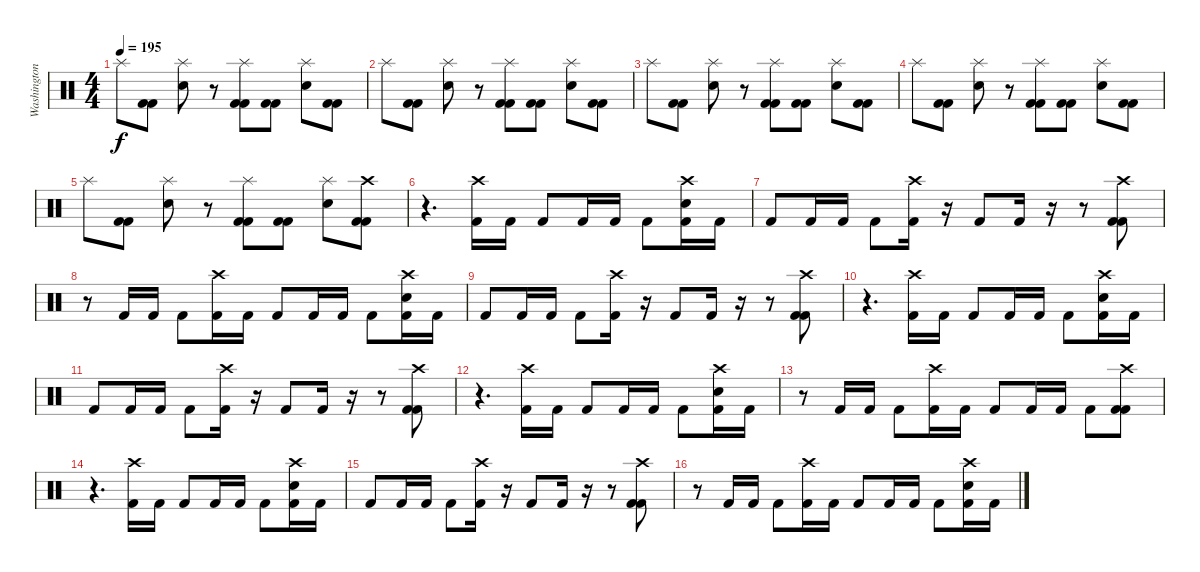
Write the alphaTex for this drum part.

\track ("Washington" "Washington") {solo instrument percussion}
\staff {score}
\articulation defaults
\ts (4 4)
\tempo 195
\clef neutral
\ks c "Splash (hit)".8{dy f}
("Kick (hit) 2" "Kick (hit) 2").8 ("Splash (hit)" "Electric Snare (hit)").8 r.8 ("Splash (hit)" "Kick (hit) 2" "Kick (hit) 2").8 ("Kick (hit) 2" "Kick (hit) 2").8 ("Splash (hit)" "Electric Snare (hit)").8 ("Kick (hit) 2" "Kick (hit) 2").8 |
"Splash (hit)".8 ("Kick (hit) 2" "Kick (hit) 2").8 ("Splash (hit)" "Electric Snare (hit)").8 r.8 ("Splash (hit)" "Kick (hit) 2" "Kick (hit) 2").8 ("Kick (hit) 2" "Kick (hit) 2").8 ("Splash (hit)" "Electric Snare (hit)").8 ("Kick (hit) 2" "Kick (hit) 2").8 |
"Splash (hit)".8 ("Kick (hit) 2" "Kick (hit) 2").8 ("Splash (hit)" "Electric Snare (hit)").8 r.8 ("Splash (hit)" "Kick (hit) 2" "Kick (hit) 2").8 ("Kick (hit) 2" "Kick (hit) 2").8 ("Splash (hit)" "Electric Snare (hit)").8 ("Kick (hit) 2" "Kick (hit) 2").8 |
"Splash (hit)".8 ("Kick (hit) 2" "Kick (hit) 2").8 ("Splash (hit)" "Electric Snare (hit)").8 r.8 ("Splash (hit)" "Kick (hit) 2" "Kick (hit) 2").8 ("Kick (hit) 2" "Kick (hit) 2").8 ("Splash (hit)" "Electric Snare (hit)").8 ("Kick (hit) 2" "Kick (hit) 2").8 |
"Splash (hit)".8 ("Kick (hit) 2" "Kick (hit) 2").8 ("Splash (hit)" "Electric Snare (hit)").8 r.8 ("Splash (hit)" "Kick (hit) 2" "Kick (hit) 2").8 ("Kick (hit) 2" "Kick (hit) 2").8 ("Splash (hit)" "Electric Snare (hit)").8 ("Crash high (hit)" "Kick (hit) 2" "Kick (hit) 2").8 |
r.4{d} ("Crash high (hit)" "Kick (hit) 2").16 "Kick (hit) 2".16 "Kick (hit) 2".8 "Kick (hit) 2".16 "Kick (hit) 2".16 "Kick (hit) 2".8 ("Crash high (hit)" "Electric Snare (hit)" "Kick (hit) 2").16 "Kick (hit) 2".16 |
"Kick (hit) 2".8 "Kick (hit) 2".16 "Kick (hit) 2".16 "Kick (hit) 2".8 ("Crash high (hit)" "Kick (hit) 2").16 r.16 "Kick (hit) 2".8 "Kick (hit) 2".16 r.16 r.8 ("Crash high (hit)" "Kick (hit) 2" "Kick (hit) 2").8 |
r.8 "Kick (hit) 2".16 "Kick (hit) 2".16 "Kick (hit) 2".8 ("Crash high (hit)" "Kick (hit) 2").16 "Kick (hit) 2".16 "Kick (hit) 2".8 "Kick (hit) 2".16 "Kick (hit) 2".16 "Kick (hit) 2".8 ("Crash high (hit)" "Electric Snare (hit)" "Kick (hit) 2").16 "Kick (hit) 2".16 |
"Kick (hit) 2".8 "Kick (hit) 2".16 "Kick (hit) 2".16 "Kick (hit) 2".8 ("Crash high (hit)" "Kick (hit) 2").16 r.16 "Kick (hit) 2".8 "Kick (hit) 2".16 r.16 r.8 ("Crash high (hit)" "Kick (hit) 2" "Kick (hit) 2").8 |
r.4{d} ("Crash high (hit)" "Kick (hit) 2").16 "Kick (hit) 2".16 "Kick (hit) 2".8 "Kick (hit) 2".16 "Kick (hit) 2".16 "Kick (hit) 2".8 ("Crash high (hit)" "Electric Snare (hit)" "Kick (hit) 2").16 "Kick (hit) 2".16 |
"Kick (hit) 2".8 "Kick (hit) 2".16 "Kick (hit) 2".16 "Kick (hit) 2".8 ("Crash high (hit)" "Kick (hit) 2").16 r.16 "Kick (hit) 2".8 "Kick (hit) 2".16 r.16 r.8 ("Crash high (hit)" "Kick (hit) 2" "Kick (hit) 2").8 |
r.4{d} ("Crash high (hit)" "Kick (hit) 2").16 "Kick (hit) 2".16 "Kick (hit) 2".8 "Kick (hit) 2".16 "Kick (hit) 2".16 "Kick (hit) 2".8 ("Crash high (hit)" "Electric Snare (hit)" "Kick (hit) 2").16 "Kick (hit) 2".16 |
r.8 "Kick (hit) 2".16 "Kick (hit) 2".16 "Kick (hit) 2".8 ("Crash high (hit)" "Kick (hit) 2").16 "Kick (hit) 2".16 "Kick (hit) 2".8 "Kick (hit) 2".16 "Kick (hit) 2".16 "Kick (hit) 2".8 ("Crash high (hit)" "Kick (hit) 2" "Kick (hit) 2").8 |
r.4{d} ("Crash high (hit)" "Kick (hit) 2").16 "Kick (hit) 2".16 "Kick (hit) 2".8 "Kick (hit) 2".16 "Kick (hit) 2".16 "Kick (hit) 2".8 ("Crash high (hit)" "Electric Snare (hit)" "Kick (hit) 2").16 "Kick (hit) 2".16 |
"Kick (hit) 2".8 "Kick (hit) 2".16 "Kick (hit) 2".16 "Kick (hit) 2".8 ("Crash high (hit)" "Kick (hit) 2").16 r.16 "Kick (hit) 2".8 "Kick (hit) 2".16 r.16 r.8 ("Crash high (hit)" "Kick (hit) 2" "Kick (hit) 2").8 |
r.8 "Kick (hit) 2".16 "Kick (hit) 2".16 "Kick (hit) 2".8 ("Crash high (hit)" "Kick (hit) 2").16 "Kick (hit) 2".16 "Kick (hit) 2".8 "Kick (hit) 2".16 "Kick (hit) 2".16 "Kick (hit) 2".8 ("Crash high (hit)" "Electric Snare (hit)" "Kick (hit) 2").16 "Kick (hit) 2".16
